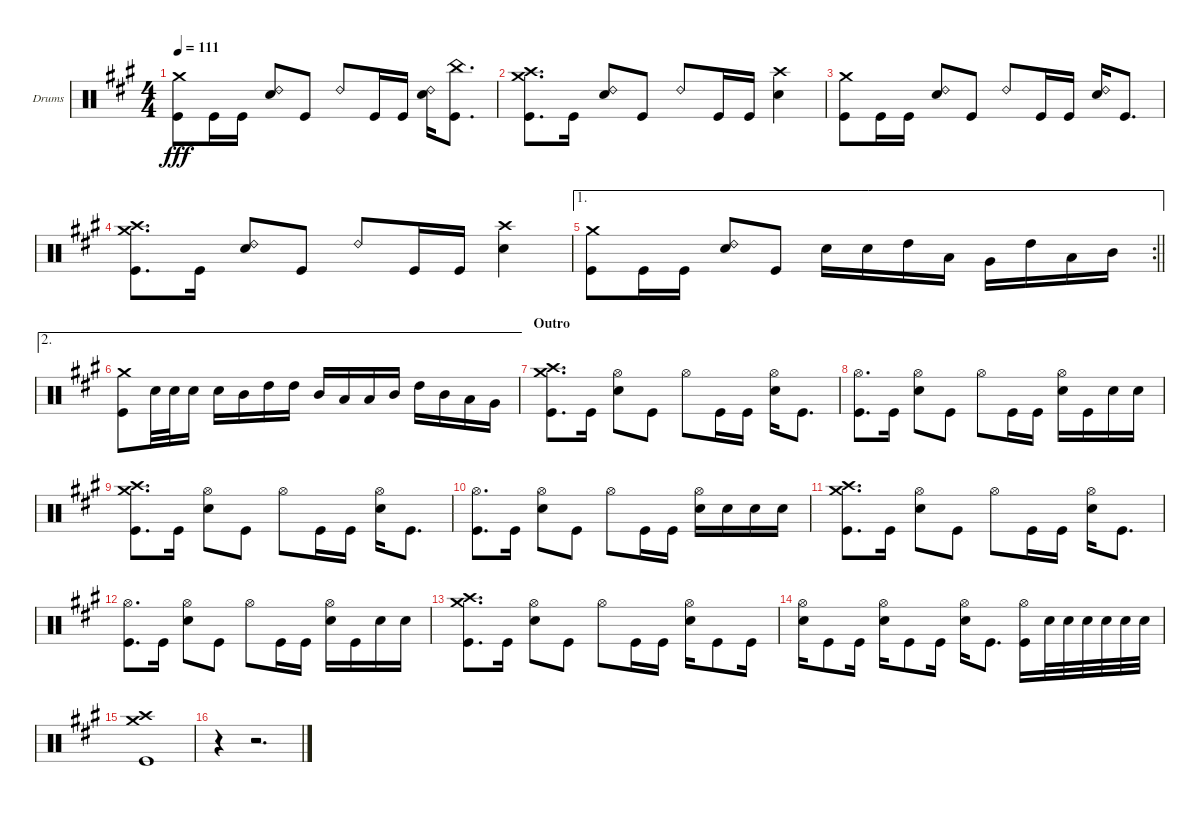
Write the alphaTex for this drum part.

\bracketExtendMode groupsimilarinstruments
\firstSystemTrackNameOrientation horizontal
\otherSystemsTrackNameOrientation horizontal
\track ("Drumkit" "Drums") {instrument percussion}
\staff {score}
\articulation defaults
\ts (4 4)
\tempo 111
\clef neutral
\scale
0.344583
\ks a
("Crash medium (hit)" "Kick (hit)").8{dy fff} "Kick (hit)".16 "Kick (hit)".16 ("Snare (hit) 2" "Ride (bell) 2").8 "Kick (hit)".8 "Ride (bell) 2".8 "Kick (hit)".16 "Kick (hit)".16 ("Snare (hit) 2" "Ride (bell) 2").16 ("Kick (hit)" "China (hit)").8{d} |
\scale
0.321691 ("Crash high (hit)" "Crash medium (hit)" "Kick (hit)").8{d} "Kick (hit)".16 ("Snare (hit) 2" "Ride (bell) 2").8 "Kick (hit)".8 "Ride (bell) 2".8 "Kick (hit)".16 "Kick (hit)".16 ("Crash high (hit)" "Snare (hit) 2").4 |
\scale
0.356618 ("Crash medium (hit)" "Kick (hit)").8 "Kick (hit)".16 "Kick (hit)".16 ("Snare (hit) 2" "Ride (bell) 2").8 "Kick (hit)".8 "Ride (bell) 2".8 "Kick (hit)".16 "Kick (hit)".16 ("Snare (hit) 2" "Ride (bell) 2").16 "Kick (hit)".8{d} |
\scale
0.321691 ("Crash high (hit)" "Crash medium (hit)" "Kick (hit)").8{d} "Kick (hit)".16 ("Snare (hit) 2" "Ride (bell) 2").8 "Kick (hit)".8 "Ride (bell) 2".8 "Kick (hit)".16 "Kick (hit)".16 ("Crash high (hit)" "Snare (hit) 2").4 |
\ae 1
\rc 2
\scale
0.336296
\barLineRight lightlight
("Crash medium (hit)" "Kick (hit)").8 "Kick (hit)".16 "Kick (hit)".16 ("Snare (hit) 2" "Ride (bell) 2").8 "Kick (hit)".8 "Snare (hit) 2".16 "Snare (hit) 2".16 "High Tom (hit)".16 "Low Tom (hit)".16 "Very Low Tom (hit)".16 "High Tom (hit)".16 "Low Tom (hit)".16 "Mid Tom (hit)".16 |
\ae 2
\scale
0.38963 ("Crash medium (hit)" "Kick (hit)").8 "Snare (hit) 2".32 "Snare (hit) 2".32 "Snare (hit) 2".16 "Snare (hit) 2".16 "Mid Tom (hit)".16 "High Tom (hit)".16 "High Tom (hit)".16 "Mid Tom (hit)".16 "Low Tom (hit)".16 "Low Tom (hit)".16 "Mid Tom (hit)".16 "High Tom (hit)".16 "Mid Tom (hit)".16 "Low Tom (hit)".16 "Very Low Tom (hit)".16 |
\section ("" "Outro")
\scale
0.274074 ("Crash high (hit)" "Crash medium (hit)" "Kick (hit)").8{d} "Kick (hit)".16 ("Hi-Hat (open)" "Snare (hit) 2").8 "Kick (hit)".8 "Hi-Hat (open)".8 "Kick (hit)".16 "Kick (hit)".16 ("Hi-Hat (open)" "Snare (hit) 2").16 "Kick (hit)".8{d} |
\scale
0.343486 ("Hi-Hat (open)" "Kick (hit)").8{d} "Kick (hit)".16 ("Hi-Hat (open)" "Snare (hit) 2").8 "Kick (hit)".8 "Hi-Hat (open)".8 "Kick (hit)".16 "Kick (hit)".16 ("Hi-Hat (open)" "Snare (hit) 2").16 "Kick (hit)".16 "Snare (hit) 2".16 "Snare (hit) 2".16 |
\scale
0.313029 ("Crash high (hit)" "Crash medium (hit)" "Kick (hit)").8{d} "Kick (hit)".16 ("Hi-Hat (open)" "Snare (hit) 2").8 "Kick (hit)".8 "Hi-Hat (open)".8 "Kick (hit)".16 "Kick (hit)".16 ("Hi-Hat (open)" "Snare (hit) 2").16 "Kick (hit)".8{d} |
\scale
0.343486 ("Hi-Hat (open)" "Kick (hit)").8{d} "Kick (hit)".16 ("Hi-Hat (open)" "Snare (hit) 2").8 "Kick (hit)".8 "Hi-Hat (open)".8 "Kick (hit)".16 "Kick (hit)".16 ("Hi-Hat (open)" "Snare (hit) 2").16 "Snare (hit) 2".16 "Snare (hit) 2".16 "Snare (hit) 2".16 |
\scale
0.317869 ("Crash high (hit)" "Crash medium (hit)" "Kick (hit)").8{d} "Kick (hit)".16 ("Hi-Hat (open)" "Snare (hit) 2").8 "Kick (hit)".8 "Hi-Hat (open)".8 "Kick (hit)".16 "Kick (hit)".16 ("Hi-Hat (open)" "Snare (hit) 2").16 "Kick (hit)".8{d} |
\scale
0.348797 ("Hi-Hat (open)" "Kick (hit)").8{d} "Kick (hit)".16 ("Hi-Hat (open)" "Snare (hit) 2").8 "Kick (hit)".8 "Hi-Hat (open)".8 "Kick (hit)".16 "Kick (hit)".16 ("Hi-Hat (open)" "Snare (hit) 2").16 "Kick (hit)".16 "Snare (hit) 2".16 "Snare (hit) 2".16 |
\scale
0.333333 ("Crash high (hit)" "Crash medium (hit)" "Kick (hit)").8{d} "Kick (hit)".16 ("Hi-Hat (open)" "Snare (hit) 2").8 "Kick (hit)".8 "Hi-Hat (open)".8 "Kick (hit)".16 "Kick (hit)".16 ("Hi-Hat (open)" "Snare (hit) 2").16 "Kick (hit)".8 "Kick (hit)".16 |
\scale
0.630653 ("Snare (hit) 2" "Hi-Hat (open)").16 "Kick (hit)".8 "Kick (hit)".16 ("Snare (hit) 2" "Hi-Hat (open)").16 "Kick (hit)".8 "Kick (hit)".16 ("Snare (hit) 2" "Hi-Hat (open)").16 "Kick (hit)".8{d} ("Kick (hit)" "Hi-Hat (open)").16 "Snare (hit) 2".32 "Snare (hit) 2".32 "Snare (hit) 2".32 "Snare (hit) 2".32 "Snare (hit) 2".32 "Snare (hit) 2".32 |
\scale
0.145729 ("Crash high (hit)" "Crash medium (hit)" "Kick (hit)").1 |
\scale
0.223618 r.4 r.2{d}
